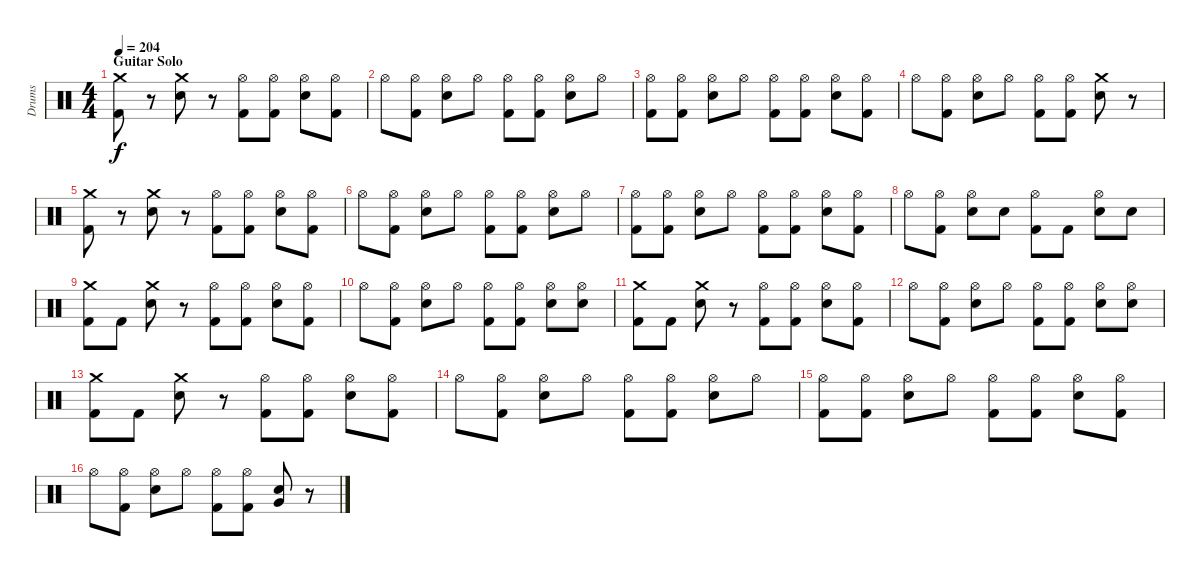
\track ("Drums" "Drums") {instrument percussion}
\staff {score}
\articulation defaults
\ts (4 4)
\section ("" "Guitar Solo")
\tempo 204
\clef neutral
\ks c
("Crash medium (hit)" "Kick (hit) 2").8{dy f} r.8 ("Crash medium (hit)" "Snare (hit) 2").8 r.8 ("Hi-Hat (open)" "Kick (hit) 2").8 ("Hi-Hat (open)" "Kick (hit) 2").8 ("Hi-Hat (open)" "Snare (hit) 2").8 ("Hi-Hat (open)" "Kick (hit) 2").8 |
"Hi-Hat (open)".8 ("Hi-Hat (open)" "Kick (hit) 2").8 ("Hi-Hat (open)" "Snare (hit) 2").8 "Hi-Hat (open)".8 ("Hi-Hat (open)" "Kick (hit) 2").8 ("Hi-Hat (open)" "Kick (hit) 2").8 ("Hi-Hat (open)" "Snare (hit) 2").8 "Hi-Hat (open)".8 |
("Hi-Hat (open)" "Kick (hit) 2").8 ("Hi-Hat (open)" "Kick (hit) 2").8 ("Hi-Hat (open)" "Snare (hit) 2").8 "Hi-Hat (open)".8 ("Hi-Hat (open)" "Kick (hit) 2").8 ("Hi-Hat (open)" "Kick (hit) 2").8 ("Hi-Hat (open)" "Snare (hit) 2").8 ("Hi-Hat (open)" "Kick (hit) 2").8 |
"Hi-Hat (open)".8 ("Hi-Hat (open)" "Kick (hit) 2").8 ("Hi-Hat (open)" "Snare (hit) 2").8 "Hi-Hat (open)".8 ("Hi-Hat (open)" "Kick (hit) 2").8 ("Hi-Hat (open)" "Kick (hit) 2").8 ("Crash medium (hit)" "Snare (hit) 2").8 r.8 |
("Crash medium (hit)" "Kick (hit) 2").8 r.8 ("Crash medium (hit)" "Snare (hit) 2").8 r.8 ("Hi-Hat (open)" "Kick (hit) 2").8 ("Hi-Hat (open)" "Kick (hit) 2").8 ("Hi-Hat (open)" "Snare (hit) 2").8 ("Hi-Hat (open)" "Kick (hit) 2").8 |
"Hi-Hat (open)".8 ("Hi-Hat (open)" "Kick (hit) 2").8 ("Hi-Hat (open)" "Snare (hit) 2").8 "Hi-Hat (open)".8 ("Hi-Hat (open)" "Kick (hit) 2").8 ("Hi-Hat (open)" "Kick (hit) 2").8 ("Hi-Hat (open)" "Snare (hit) 2").8 "Hi-Hat (open)".8 |
("Hi-Hat (open)" "Kick (hit) 2").8 ("Hi-Hat (open)" "Kick (hit) 2").8 ("Hi-Hat (open)" "Snare (hit) 2").8 "Hi-Hat (open)".8 ("Hi-Hat (open)" "Kick (hit) 2").8 ("Hi-Hat (open)" "Kick (hit) 2").8 ("Hi-Hat (open)" "Snare (hit) 2").8 ("Hi-Hat (open)" "Kick (hit) 2").8 |
"Hi-Hat (open)".8 ("Hi-Hat (open)" "Kick (hit) 2").8 ("Hi-Hat (open)" "Snare (hit) 2").8 "Snare (hit) 2".8 ("Hi-Hat (open)" "Kick (hit) 2").8 "Kick (hit) 2".8 ("Hi-Hat (open)" "Snare (hit) 2").8 "Snare (hit) 2".8 |
("Crash medium (hit)" "Kick (hit) 2").8 "Kick (hit) 2".8 ("Crash medium (hit)" "Snare (hit) 2").8 r.8 ("Hi-Hat (open)" "Kick (hit) 2").8 ("Hi-Hat (open)" "Kick (hit) 2").8 ("Hi-Hat (open)" "Snare (hit) 2").8 ("Hi-Hat (open)" "Kick (hit) 2").8 |
"Hi-Hat (open)".8 ("Hi-Hat (open)" "Kick (hit) 2").8 ("Hi-Hat (open)" "Snare (hit) 2").8 "Hi-Hat (open)".8 ("Hi-Hat (open)" "Kick (hit) 2").8 ("Hi-Hat (open)" "Kick (hit) 2").8 ("Hi-Hat (open)" "Snare (hit) 2").8 ("Hi-Hat (open)" "Snare (hit) 2").8 |
("Crash medium (hit)" "Kick (hit) 2").8 "Kick (hit) 2".8 ("Crash medium (hit)" "Snare (hit) 2").8 r.8 ("Hi-Hat (open)" "Kick (hit) 2").8 ("Hi-Hat (open)" "Kick (hit) 2").8 ("Hi-Hat (open)" "Snare (hit) 2").8 ("Hi-Hat (open)" "Kick (hit) 2").8 |
"Hi-Hat (open)".8 ("Hi-Hat (open)" "Kick (hit) 2").8 ("Hi-Hat (open)" "Snare (hit) 2").8 "Hi-Hat (open)".8 ("Hi-Hat (open)" "Kick (hit) 2").8 ("Hi-Hat (open)" "Kick (hit) 2").8 ("Hi-Hat (open)" "Snare (hit) 2").8 ("Hi-Hat (open)" "Snare (hit) 2").8 |
("Crash medium (hit)" "Kick (hit) 2").8 "Kick (hit) 2".8 ("Crash medium (hit)" "Snare (hit) 2").8 r.8 ("Hi-Hat (open)" "Kick (hit) 2").8 ("Hi-Hat (open)" "Kick (hit) 2").8 ("Hi-Hat (open)" "Snare (hit) 2").8 ("Hi-Hat (open)" "Kick (hit) 2").8 |
"Hi-Hat (open)".8 ("Hi-Hat (open)" "Kick (hit) 2").8 ("Hi-Hat (open)" "Snare (hit) 2").8 "Hi-Hat (open)".8 ("Hi-Hat (open)" "Kick (hit) 2").8 ("Hi-Hat (open)" "Kick (hit) 2").8 ("Hi-Hat (open)" "Snare (hit) 2").8 "Hi-Hat (open)".8 |
("Hi-Hat (open)" "Kick (hit) 2").8 ("Hi-Hat (open)" "Kick (hit) 2").8 ("Hi-Hat (open)" "Snare (hit) 2").8 "Hi-Hat (open)".8 ("Hi-Hat (open)" "Kick (hit) 2").8 ("Hi-Hat (open)" "Kick (hit) 2").8 ("Hi-Hat (open)" "Snare (hit) 2").8 ("Hi-Hat (open)" "Kick (hit) 2").8 |
"Hi-Hat (open)".8 ("Hi-Hat (open)" "Kick (hit) 2").8 ("Hi-Hat (open)" "Snare (hit) 2").8 "Hi-Hat (open)".8 ("Hi-Hat (open)" "Kick (hit) 2").8 ("Hi-Hat (open)" "Kick (hit) 2").8 ("Snare (hit) 2" "Very Low Tom (hit)").8 r.8
